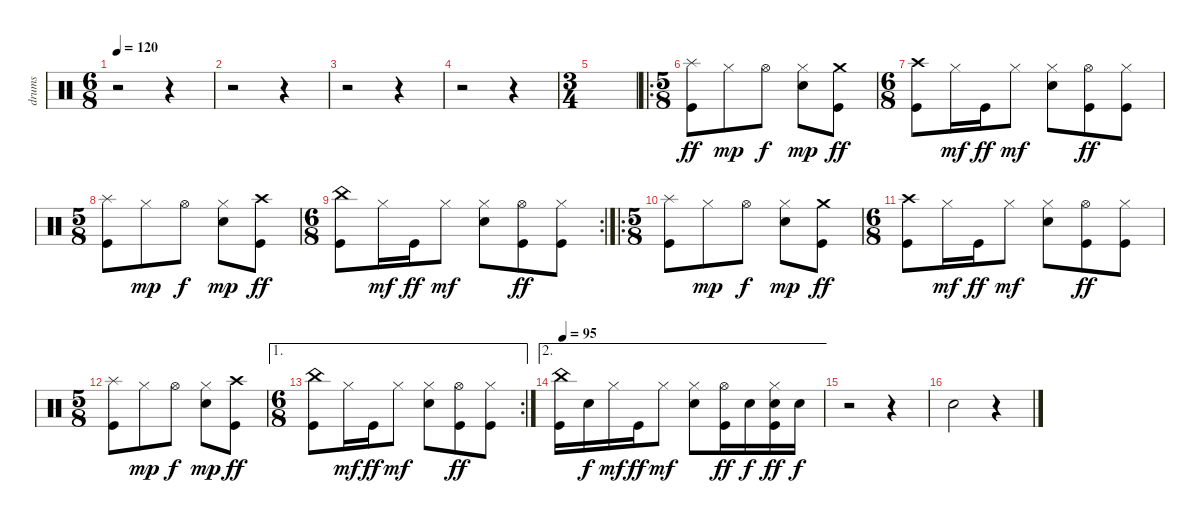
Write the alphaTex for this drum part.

\track ("drums" "drums") {instrument percussion}
\staff {score}
\articulation defaults
\ts (6 8)
\tempo 120
\clef neutral
\ks c
r.2{dy ff} r.4 |
r.2 r.4 |
r.2 r.4 |
r.2 r.4 |
\ts (3 4)
|
\ro
\ts (5 8)
("Splash (hit)" "Kick (hit)").8 "Hi-Hat (closed)".8{dy mp} "Hi-Hat (open)".8{dy f} ("Hi-Hat (closed)" "Electric Snare (hit)").8{dy mp} ("Crash medium (hit)" "Kick (hit)").8{dy ff} |
\ts (6 8)
("Crash high (hit)" "Kick (hit)").8 "Hi-Hat (closed)".16{dy mf} "Kick (hit)".16{dy ff} "Hi-Hat (closed)".8{dy mf} ("Hi-Hat (closed)" "Electric Snare (hit)").8 ("Hi-Hat (open)" "Kick (hit)").8{dy ff} ("Hi-Hat (closed)" "Kick (hit)").8 |
\ts (5 8)
("Splash (hit)" "Kick (hit)").8 "Hi-Hat (closed)".8{dy mp} "Hi-Hat (open)".8{dy f} ("Hi-Hat (closed)" "Electric Snare (hit)").8{dy mp} ("Crash high (hit)" "Kick (hit)").8{dy ff} |
\rc 2
\ts (6 8)
("China (hit)" "Kick (hit)").8 "Hi-Hat (closed)".16{dy mf} "Kick (hit)".16{dy ff} "Hi-Hat (closed)".8{dy mf} ("Hi-Hat (closed)" "Electric Snare (hit)").8 ("Hi-Hat (open)" "Kick (hit)").8{dy ff} ("Hi-Hat (closed)" "Kick (hit)").8 |
\ro
\ts (5 8)
("Splash (hit)" "Kick (hit)").8 "Hi-Hat (closed)".8{dy mp} "Hi-Hat (open)".8{dy f} ("Hi-Hat (closed)" "Electric Snare (hit)").8{dy mp} ("Crash medium (hit)" "Kick (hit)").8{dy ff} |
\ts (6 8)
("Crash high (hit)" "Kick (hit)").8 "Hi-Hat (closed)".16{dy mf} "Kick (hit)".16{dy ff} "Hi-Hat (closed)".8{dy mf} ("Hi-Hat (closed)" "Electric Snare (hit)").8 ("Hi-Hat (open)" "Kick (hit)").8{dy ff} ("Hi-Hat (closed)" "Kick (hit)").8 |
\ts (5 8)
("Splash (hit)" "Kick (hit)").8 "Hi-Hat (closed)".8{dy mp} "Hi-Hat (open)".8{dy f} ("Hi-Hat (closed)" "Electric Snare (hit)").8{dy mp} ("Crash high (hit)" "Kick (hit)").8{dy ff} |
\ae 1
\rc 2
\ts (6 8)
("China (hit)" "Kick (hit)").8 "Hi-Hat (closed)".16{dy mf} "Kick (hit)".16{dy ff} "Hi-Hat (closed)".8{dy mf} ("Hi-Hat (closed)" "Electric Snare (hit)").8 ("Hi-Hat (open)" "Kick (hit)").8{dy ff} ("Hi-Hat (closed)" "Kick (hit)").8 |
\ae 2
\tempo 95
("China (hit)" "Kick (hit)").16 "Electric Snare (hit)".16{dy f} "Hi-Hat (closed)".16{dy mf} "Kick (hit)".16{dy ff} "Hi-Hat (closed)".8{dy mf} ("Hi-Hat (closed)" "Electric Snare (hit)").8 ("Hi-Hat (open)" "Kick (hit)").16{dy ff} "Electric Snare (hit)".16{dy f} ("Hi-Hat (closed)" "Electric Snare (hit)" "Kick (hit)").16{dy ff} "Electric Snare (hit)".16{dy f} |
r.2 r.4 |
"Snare (hit)".2 r.4
